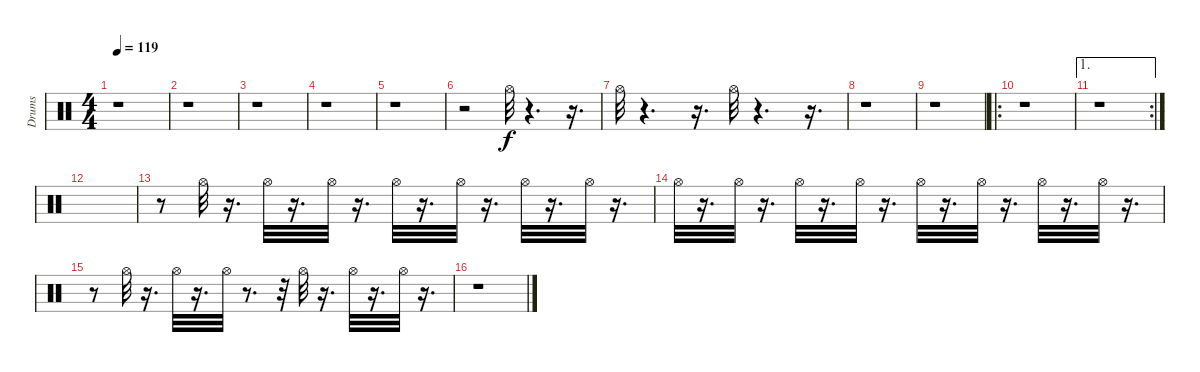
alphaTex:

\track ("Drums" "Drums") {instrument percussion}
\staff {score}
\articulation defaults
\ts (4 4)
\tempo 119
\clef neutral
\ks c
r.1{dy f} |
r.1 |
r.1 |
r.1 |
r.1 |
r.2 "Hi-Hat (open)".32 r.4{d} r.16{d} |
"Hi-Hat (open)".32 r.4{d} r.16{d} "Hi-Hat (open)".32 r.4{d} r.16{d} |
r.1 |
r.1 |
\ro
r.1 |
\ae 1
\rc 2
r.1 |
|
r.8 "Hi-Hat (open)".32 r.16{d} "Hi-Hat (open)".32 r.16{d} "Hi-Hat (open)".32 r.16{d} "Hi-Hat (open)".32 r.16{d} "Hi-Hat (open)".32 r.16{d} "Hi-Hat (open)".32 r.16{d} "Hi-Hat (open)".32 r.16{d} |
"Hi-Hat (open)".32 r.16{d} "Hi-Hat (open)".32 r.16{d} "Hi-Hat (open)".32 r.16{d} "Hi-Hat (open)".32 r.16{d} "Hi-Hat (open)".32 r.16{d} "Hi-Hat (open)".32 r.16{d} "Hi-Hat (open)".32 r.16{d} "Hi-Hat (open)".32 r.16{d} |
r.8 "Hi-Hat (open)".32 r.16{d} "Hi-Hat (open)".32 r.16{d} "Hi-Hat (open)".32 r.8{d} r.32 "Hi-Hat (open)".32 r.16{d} "Hi-Hat (open)".32 r.16{d} "Hi-Hat (open)".32 r.16{d} |
r.1
